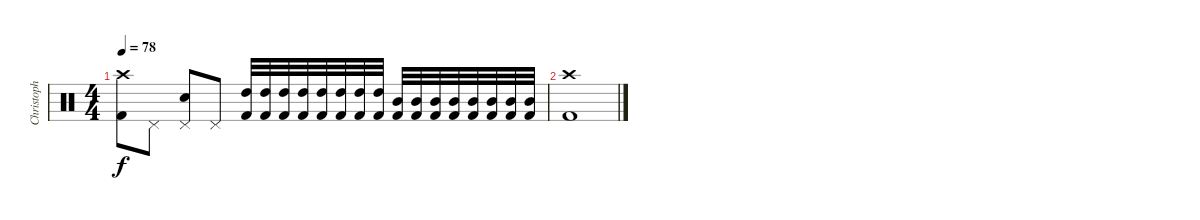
\track ("Christoph" "Christoph") {instrument percussion}
\staff {score}
\articulation defaults
\ts (4 4)
\tempo 78
\clef neutral
\ks c
("Crash high (hit)" "Kick (hit) 2").8{dy f} "Pedal Hi-Hat (hit)".8 ("Pedal Hi-Hat (hit)" "Snare (hit) 2").8 "Pedal Hi-Hat (hit)".8 ("High Tom (hit)" "Kick (hit) 2").32 ("High Tom (hit)" "Kick (hit) 2").32 ("High Tom (hit)" "Kick (hit) 2").32 ("High Tom (hit)" "Kick (hit) 2").32 ("High Tom (hit)" "Kick (hit) 2").32 ("High Tom (hit)" "Kick (hit) 2").32 ("High Tom (hit)" "Kick (hit) 2").32 ("High Tom (hit)" "Kick (hit) 2").32 ("Mid Tom (hit)" "Kick (hit) 2").32 ("Mid Tom (hit)" "Kick (hit) 2").32 ("Mid Tom (hit)" "Kick (hit) 2").32 ("Mid Tom (hit)" "Kick (hit) 2").32 ("Mid Tom (hit)" "Kick (hit) 2").32 ("Mid Tom (hit)" "Kick (hit) 2").32 ("Mid Tom (hit)" "Kick (hit) 2").32 ("Mid Tom (hit)" "Kick (hit) 2").32 |
("Crash high (hit)" "Kick (hit) 2").1
